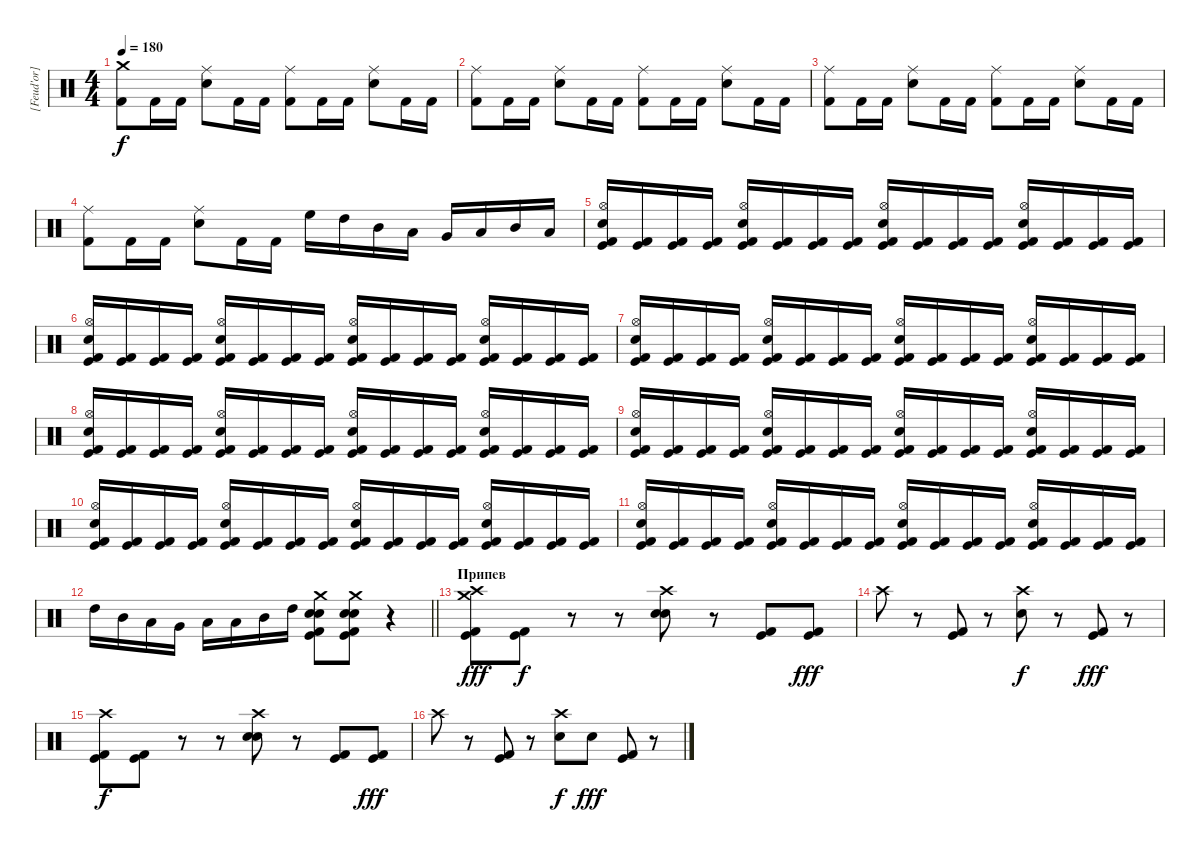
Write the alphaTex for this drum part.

\track ("[Feud'or] - Drums" "[Feud'or] ") {instrument percussion}
\staff {score}
\articulation defaults
\ts (4 4)
\tempo 180
\clef neutral
\ks c
("Crash medium (hit)" "Kick (hit) 2").8{dy f} "Kick (hit) 2".16 "Kick (hit) 2".16 ("Ride (middle)" "Snare (hit) 2").8 "Kick (hit) 2".16 "Kick (hit) 2".16 ("Ride (middle)" "Kick (hit) 2").8 "Kick (hit) 2".16 "Kick (hit) 2".16 ("Ride (middle)" "Snare (hit) 2").8 "Kick (hit) 2".16 "Kick (hit) 2".16 |
("Ride (middle)" "Kick (hit) 2").8 "Kick (hit) 2".16 "Kick (hit) 2".16 ("Ride (middle)" "Snare (hit) 2").8 "Kick (hit) 2".16 "Kick (hit) 2".16 ("Ride (middle)" "Kick (hit) 2").8 "Kick (hit) 2".16 "Kick (hit) 2".16 ("Ride (middle)" "Snare (hit) 2").8 "Kick (hit) 2".16 "Kick (hit) 2".16 |
("Ride (middle)" "Kick (hit) 2").8 "Kick (hit) 2".16 "Kick (hit) 2".16 ("Ride (middle)" "Snare (hit) 2").8 "Kick (hit) 2".16 "Kick (hit) 2".16 ("Ride (middle)" "Kick (hit) 2").8 "Kick (hit) 2".16 "Kick (hit) 2".16 ("Ride (middle)" "Snare (hit) 2").8 "Kick (hit) 2".16 "Kick (hit) 2".16 |
("Ride (middle)" "Kick (hit) 2").8 "Kick (hit) 2".16 "Kick (hit) 2".16 ("Ride (middle)" "Snare (hit) 2").8 "Kick (hit) 2".16 "Kick (hit) 2".16 "High Floor Tom (hit)".16 "High Tom (hit)".16 "Mid Tom (hit)".16 "Low Tom (hit)".16 "Very Low Tom (hit)".16 "Low Tom (hit)".16 "Mid Tom (hit)".16 "Low Floor Tom (hit)".16 |
("Hi-Hat (open)" "Kick (hit)" "Snare (hit) 2" "Kick (hit) 2").16 ("Kick (hit)" "Kick (hit) 2").16 ("Kick (hit)" "Kick (hit) 2").16 ("Kick (hit)" "Kick (hit) 2").16 ("Hi-Hat (open)" "Kick (hit)" "Snare (hit) 2" "Kick (hit) 2").16 ("Kick (hit)" "Kick (hit) 2").16 ("Kick (hit)" "Kick (hit) 2").16 ("Kick (hit)" "Kick (hit) 2").16 ("Hi-Hat (open)" "Kick (hit)" "Snare (hit) 2" "Kick (hit) 2").16 ("Kick (hit)" "Kick (hit) 2").16 ("Kick (hit)" "Kick (hit) 2").16 ("Kick (hit)" "Kick (hit) 2").16 ("Hi-Hat (open)" "Kick (hit)" "Snare (hit) 2" "Kick (hit) 2").16 ("Kick (hit)" "Kick (hit) 2").16 ("Kick (hit)" "Kick (hit) 2").16 ("Kick (hit)" "Kick (hit) 2").16 |
("Hi-Hat (open)" "Kick (hit)" "Snare (hit) 2" "Kick (hit) 2").16 ("Kick (hit)" "Kick (hit) 2").16 ("Kick (hit)" "Kick (hit) 2").16 ("Kick (hit)" "Kick (hit) 2").16 ("Hi-Hat (open)" "Kick (hit)" "Snare (hit) 2" "Kick (hit) 2").16 ("Kick (hit)" "Kick (hit) 2").16 ("Kick (hit)" "Kick (hit) 2").16 ("Kick (hit)" "Kick (hit) 2").16 ("Hi-Hat (open)" "Kick (hit)" "Snare (hit) 2" "Kick (hit) 2").16 ("Kick (hit)" "Kick (hit) 2").16 ("Kick (hit)" "Kick (hit) 2").16 ("Kick (hit)" "Kick (hit) 2").16 ("Hi-Hat (open)" "Kick (hit)" "Snare (hit) 2" "Kick (hit) 2").16 ("Kick (hit)" "Kick (hit) 2").16 ("Kick (hit)" "Kick (hit) 2").16 ("Kick (hit)" "Kick (hit) 2").16 |
("Hi-Hat (open)" "Kick (hit)" "Snare (hit) 2" "Kick (hit) 2").16 ("Kick (hit)" "Kick (hit) 2").16 ("Kick (hit)" "Kick (hit) 2").16 ("Kick (hit)" "Kick (hit) 2").16 ("Hi-Hat (open)" "Kick (hit)" "Snare (hit) 2" "Kick (hit) 2").16 ("Kick (hit)" "Kick (hit) 2").16 ("Kick (hit)" "Kick (hit) 2").16 ("Kick (hit)" "Kick (hit) 2").16 ("Hi-Hat (open)" "Kick (hit)" "Snare (hit) 2" "Kick (hit) 2").16 ("Kick (hit)" "Kick (hit) 2").16 ("Kick (hit)" "Kick (hit) 2").16 ("Kick (hit)" "Kick (hit) 2").16 ("Hi-Hat (open)" "Kick (hit)" "Snare (hit) 2" "Kick (hit) 2").16 ("Kick (hit)" "Kick (hit) 2").16 ("Kick (hit)" "Kick (hit) 2").16 ("Kick (hit)" "Kick (hit) 2").16 |
("Hi-Hat (open)" "Kick (hit)" "Snare (hit) 2" "Kick (hit) 2").16 ("Kick (hit)" "Kick (hit) 2").16 ("Kick (hit)" "Kick (hit) 2").16 ("Kick (hit)" "Kick (hit) 2").16 ("Hi-Hat (open)" "Kick (hit)" "Snare (hit) 2" "Kick (hit) 2").16 ("Kick (hit)" "Kick (hit) 2").16 ("Kick (hit)" "Kick (hit) 2").16 ("Kick (hit)" "Kick (hit) 2").16 ("Hi-Hat (open)" "Kick (hit)" "Snare (hit) 2" "Kick (hit) 2").16 ("Kick (hit)" "Kick (hit) 2").16 ("Kick (hit)" "Kick (hit) 2").16 ("Kick (hit)" "Kick (hit) 2").16 ("Hi-Hat (open)" "Kick (hit)" "Snare (hit) 2" "Kick (hit) 2").16 ("Kick (hit)" "Kick (hit) 2").16 ("Kick (hit)" "Kick (hit) 2").16 ("Kick (hit)" "Kick (hit) 2").16 |
("Hi-Hat (open)" "Kick (hit)" "Snare (hit) 2" "Kick (hit) 2").16 ("Kick (hit)" "Kick (hit) 2").16 ("Kick (hit)" "Kick (hit) 2").16 ("Kick (hit)" "Kick (hit) 2").16 ("Hi-Hat (open)" "Kick (hit)" "Snare (hit) 2" "Kick (hit) 2").16 ("Kick (hit)" "Kick (hit) 2").16 ("Kick (hit)" "Kick (hit) 2").16 ("Kick (hit)" "Kick (hit) 2").16 ("Hi-Hat (open)" "Kick (hit)" "Snare (hit) 2" "Kick (hit) 2").16 ("Kick (hit)" "Kick (hit) 2").16 ("Kick (hit)" "Kick (hit) 2").16 ("Kick (hit)" "Kick (hit) 2").16 ("Hi-Hat (open)" "Kick (hit)" "Snare (hit) 2" "Kick (hit) 2").16 ("Kick (hit)" "Kick (hit) 2").16 ("Kick (hit)" "Kick (hit) 2").16 ("Kick (hit)" "Kick (hit) 2").16 |
("Hi-Hat (open)" "Kick (hit)" "Snare (hit) 2" "Kick (hit) 2").16 ("Kick (hit)" "Kick (hit) 2").16 ("Kick (hit)" "Kick (hit) 2").16 ("Kick (hit)" "Kick (hit) 2").16 ("Hi-Hat (open)" "Kick (hit)" "Snare (hit) 2" "Kick (hit) 2").16 ("Kick (hit)" "Kick (hit) 2").16 ("Kick (hit)" "Kick (hit) 2").16 ("Kick (hit)" "Kick (hit) 2").16 ("Hi-Hat (open)" "Kick (hit)" "Snare (hit) 2" "Kick (hit) 2").16 ("Kick (hit)" "Kick (hit) 2").16 ("Kick (hit)" "Kick (hit) 2").16 ("Kick (hit)" "Kick (hit) 2").16 ("Hi-Hat (open)" "Kick (hit)" "Snare (hit) 2" "Kick (hit) 2").16 ("Kick (hit)" "Kick (hit) 2").16 ("Kick (hit)" "Kick (hit) 2").16 ("Kick (hit)" "Kick (hit) 2").16 |
("Hi-Hat (open)" "Kick (hit)" "Snare (hit) 2" "Kick (hit) 2").16 ("Kick (hit)" "Kick (hit) 2").16 ("Kick (hit)" "Kick (hit) 2").16 ("Kick (hit)" "Kick (hit) 2").16 ("Hi-Hat (open)" "Kick (hit)" "Snare (hit) 2" "Kick (hit) 2").16 ("Kick (hit)" "Kick (hit) 2").16 ("Kick (hit)" "Kick (hit) 2").16 ("Kick (hit)" "Kick (hit) 2").16 ("Hi-Hat (open)" "Kick (hit)" "Snare (hit) 2" "Kick (hit) 2").16 ("Kick (hit)" "Kick (hit) 2").16 ("Kick (hit)" "Kick (hit) 2").16 ("Kick (hit)" "Kick (hit) 2").16 ("Hi-Hat (open)" "Kick (hit)" "Snare (hit) 2" "Kick (hit) 2").16 ("Kick (hit)" "Kick (hit) 2").16 ("Kick (hit)" "Kick (hit) 2").16 ("Kick (hit)" "Kick (hit) 2").16 |
\barLineRight lightlight "High Tom (hit)".16 "Mid Tom (hit)".16 "Low Tom (hit)".16 "Very Low Tom (hit)".16 "Low Floor Tom (hit)".16 "Low Tom (hit)".16 "Mid Tom (hit)".16 "High Tom (hit)".16
("Crash medium (hit)" "Kick (hit) 2" "Kick (hit)" "Electric Snare (hit)" "Snare (hit) 2").8 ("Crash medium (hit)" "Kick (hit) 2" "Kick (hit)" "Electric Snare (hit)" "Snare (hit) 2").8 r.4 |
\section ("" "Припев")
("Crash high (hit)" "Crash medium (hit)" "Kick (hit)" "Kick (hit) 2").8{dy fff} ("Kick (hit)" "Kick (hit) 2").8{dy f} r.8 r.8 ("Crash high (hit)" "Snare (hit) 2" "Electric Snare (hit)").8 r.8 ("Kick (hit)" "Kick (hit) 2").8 ("Kick (hit) 2" "Kick (hit)").8{dy fff} |
"Crash high (hit)".8 r.8 ("Kick (hit)" "Kick (hit) 2").8 r.8 ("Crash high (hit)" "Snare (hit) 2").8{dy f} r.8 ("Kick (hit) 2" "Kick (hit)").8{dy fff} r.8 |
("Crash high (hit)" "Kick (hit)" "Kick (hit) 2").8{dy f} ("Kick (hit)" "Kick (hit) 2").8 r.8 r.8 ("Crash high (hit)" "Snare (hit) 2" "Electric Snare (hit)").8 r.8 ("Kick (hit)" "Kick (hit) 2").8 ("Kick (hit) 2" "Kick (hit)").8{dy fff} |
"Crash high (hit)".8 r.8 ("Kick (hit)" "Kick (hit) 2").8 r.8 ("Crash high (hit)" "Snare (hit) 2").8{dy f} "Snare (hit) 2".8{dy fff} ("Kick (hit) 2" "Kick (hit)").8 r.8
